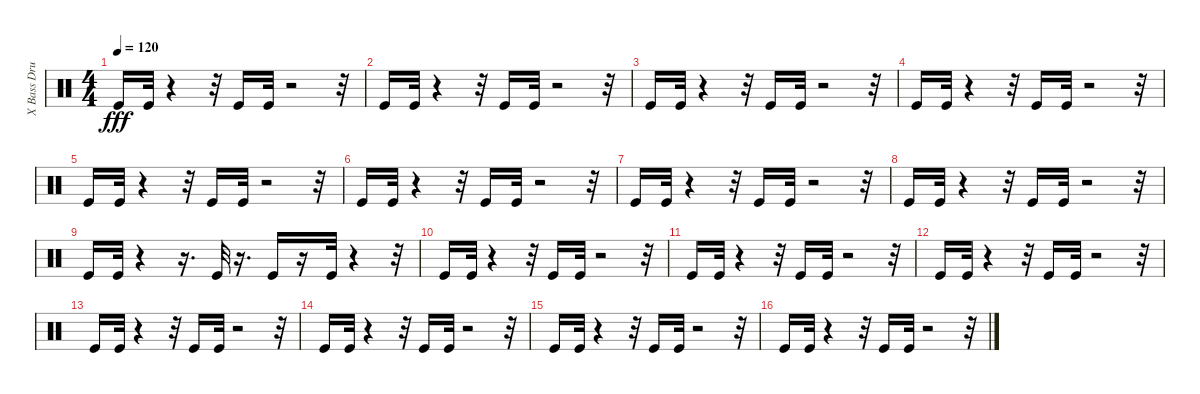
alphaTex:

\track ("X Bass Drum         " "X Bass Dru") {instrument percussion}
\staff {score}
\articulation defaults
\ts (4 4)
\tempo 120
\clef neutral
\ks c "Kick (hit)".16{dy fff} "Kick (hit)".32
r.4 r.32 "Kick (hit)".16 "Kick (hit)".32 r.2 r.32 |
"Kick (hit)".16 "Kick (hit)".32 r.4 r.32 "Kick (hit)".16 "Kick (hit)".32 r.2 r.32 |
"Kick (hit)".16 "Kick (hit)".32 r.4 r.32 "Kick (hit)".16 "Kick (hit)".32 r.2 r.32 |
"Kick (hit)".16 "Kick (hit)".32 r.4 r.32 "Kick (hit)".16 "Kick (hit)".32 r.2 r.32 |
"Kick (hit)".16 "Kick (hit)".32 r.4 r.32 "Kick (hit)".16 "Kick (hit)".32 r.2 r.32 |
"Kick (hit)".16 "Kick (hit)".32 r.4 r.32 "Kick (hit)".16 "Kick (hit)".32 r.2 r.32 |
"Kick (hit)".16 "Kick (hit)".32 r.4 r.32 "Kick (hit)".16 "Kick (hit)".32 r.2 r.32 |
"Kick (hit)".16 "Kick (hit)".32 r.4 r.32 "Kick (hit)".16 "Kick (hit)".32 r.2 r.32 |
"Kick (hit)".16 "Kick (hit)".32 r.4 r.16{d} "Kick (hit)".32 r.16{d} "Kick (hit)".16 r.16 "Kick (hit)".32 r.4 r.32 |
"Kick (hit)".16 "Kick (hit)".32 r.4 r.32 "Kick (hit)".16 "Kick (hit)".32 r.2 r.32 |
"Kick (hit)".16 "Kick (hit)".32 r.4 r.32 "Kick (hit)".16 "Kick (hit)".32 r.2 r.32 |
"Kick (hit)".16 "Kick (hit)".32 r.4 r.32 "Kick (hit)".16 "Kick (hit)".32 r.2 r.32 |
"Kick (hit)".16 "Kick (hit)".32 r.4 r.32 "Kick (hit)".16 "Kick (hit)".32 r.2 r.32 |
"Kick (hit)".16 "Kick (hit)".32 r.4 r.32 "Kick (hit)".16 "Kick (hit)".32 r.2 r.32 |
"Kick (hit)".16 "Kick (hit)".32 r.4 r.32 "Kick (hit)".16 "Kick (hit)".32 r.2 r.32 |
"Kick (hit)".16 "Kick (hit)".32 r.4 r.32 "Kick (hit)".16 "Kick (hit)".32 r.2 r.32
